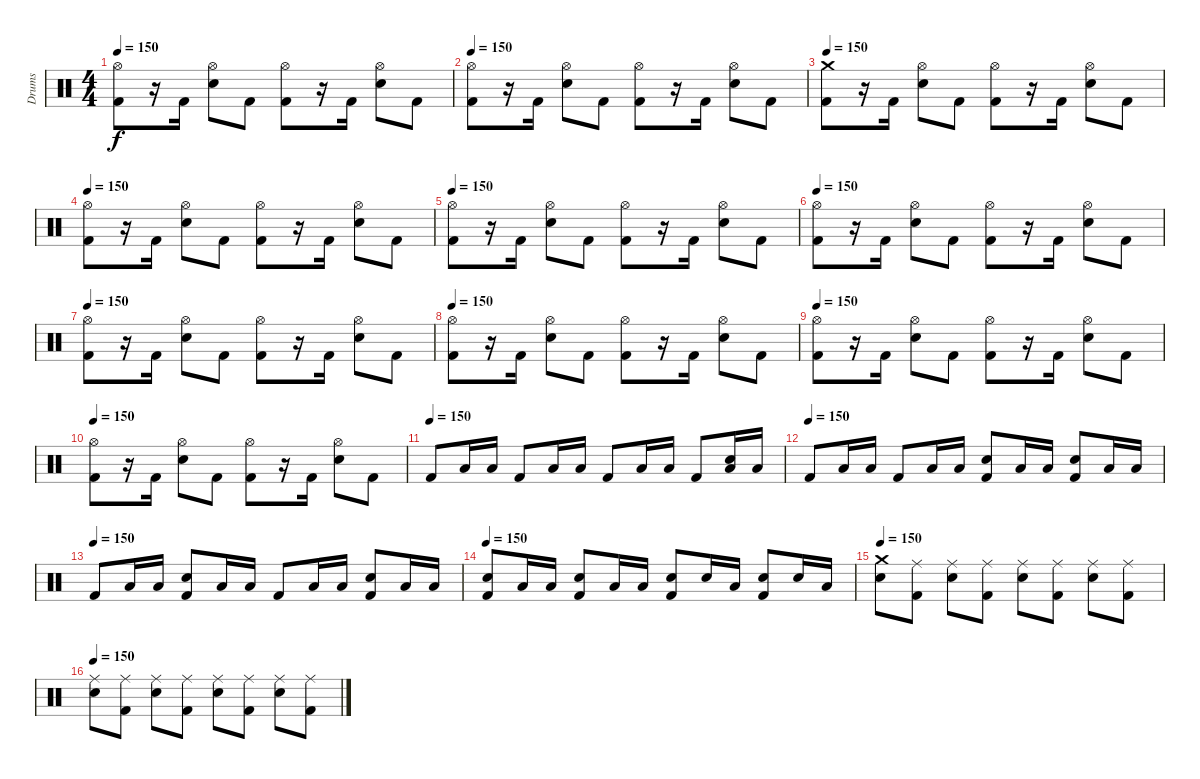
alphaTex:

\track ("Drums" "Drums") {instrument percussion}
\staff {score}
\articulation defaults
\ts (4 4)
\tempo 150
\clef neutral
\ks c
("Kick (hit) 2" "Hi-Hat (open)").8{dy f} r.16 "Kick (hit) 2".16 ("Electric Snare (hit)" "Hi-Hat (open)").8 "Kick (hit) 2".8 ("Kick (hit) 2" "Hi-Hat (open)").8 r.16 "Kick (hit) 2".16 ("Electric Snare (hit)" "Hi-Hat (open)").8 "Kick (hit) 2".8 |
\tempo 150
("Kick (hit) 2" "Hi-Hat (open)").8 r.16 "Kick (hit) 2".16 ("Electric Snare (hit)" "Hi-Hat (open)").8 "Kick (hit) 2".8 ("Kick (hit) 2" "Hi-Hat (open)").8 r.16 "Kick (hit) 2".16 ("Electric Snare (hit)" "Hi-Hat (open)").8 "Kick (hit) 2".8 |
\tempo 150
("Kick (hit) 2" "Crash medium (hit)").8 r.16 "Kick (hit) 2".16 ("Electric Snare (hit)" "Hi-Hat (open)").8 "Kick (hit) 2".8 ("Kick (hit) 2" "Hi-Hat (open)").8 r.16 "Kick (hit) 2".16 ("Electric Snare (hit)" "Hi-Hat (open)").8 "Kick (hit) 2".8 |
\tempo 150
("Kick (hit) 2" "Hi-Hat (open)").8 r.16 "Kick (hit) 2".16 ("Electric Snare (hit)" "Hi-Hat (open)").8 "Kick (hit) 2".8 ("Kick (hit) 2" "Hi-Hat (open)").8 r.16 "Kick (hit) 2".16 ("Electric Snare (hit)" "Hi-Hat (open)").8 "Kick (hit) 2".8 |
\tempo 150
("Kick (hit) 2" "Hi-Hat (open)").8 r.16 "Kick (hit) 2".16 ("Electric Snare (hit)" "Hi-Hat (open)").8 "Kick (hit) 2".8 ("Kick (hit) 2" "Hi-Hat (open)").8 r.16 "Kick (hit) 2".16 ("Electric Snare (hit)" "Hi-Hat (open)").8 "Kick (hit) 2".8 |
\tempo 150
("Kick (hit) 2" "Hi-Hat (open)").8 r.16 "Kick (hit) 2".16 ("Electric Snare (hit)" "Hi-Hat (open)").8 "Kick (hit) 2".8 ("Kick (hit) 2" "Hi-Hat (open)").8 r.16 "Kick (hit) 2".16 ("Electric Snare (hit)" "Hi-Hat (open)").8 "Kick (hit) 2".8 |
\tempo 150
("Kick (hit) 2" "Hi-Hat (open)").8 r.16 "Kick (hit) 2".16 ("Electric Snare (hit)" "Hi-Hat (open)").8 "Kick (hit) 2".8 ("Kick (hit) 2" "Hi-Hat (open)").8 r.16 "Kick (hit) 2".16 ("Electric Snare (hit)" "Hi-Hat (open)").8 "Kick (hit) 2".8 |
\tempo 150
("Kick (hit) 2" "Hi-Hat (open)").8 r.16 "Kick (hit) 2".16 ("Electric Snare (hit)" "Hi-Hat (open)").8 "Kick (hit) 2".8 ("Kick (hit) 2" "Hi-Hat (open)").8 r.16 "Kick (hit) 2".16 ("Electric Snare (hit)" "Hi-Hat (open)").8 "Kick (hit) 2".8 |
\tempo 150
("Kick (hit) 2" "Hi-Hat (open)").8 r.16 "Kick (hit) 2".16 ("Electric Snare (hit)" "Hi-Hat (open)").8 "Kick (hit) 2".8 ("Kick (hit) 2" "Hi-Hat (open)").8 r.16 "Kick (hit) 2".16 ("Electric Snare (hit)" "Hi-Hat (open)").8 "Kick (hit) 2".8 |
\tempo 150
("Kick (hit) 2" "Hi-Hat (open)").8 r.16 "Kick (hit) 2".16 ("Electric Snare (hit)" "Hi-Hat (open)").8 "Kick (hit) 2".8 ("Kick (hit) 2" "Hi-Hat (open)").8 r.16 "Kick (hit) 2".16 ("Electric Snare (hit)" "Hi-Hat (open)").8 "Kick (hit) 2".8 |
\tempo (150)
"Kick (hit) 2".8 "Low Tom (hit)".16 "Low Tom (hit)".16 "Kick (hit) 2".8 "Low Tom (hit)".16 "Low Tom (hit)".16 "Kick (hit) 2".8 "Low Tom (hit)".16 "Low Tom (hit)".16 "Kick (hit) 2".8 ("Electric Snare (hit)" "Low Tom (hit)").16 "Low Tom (hit)".16 |
\tempo (150)
"Kick (hit) 2".8 "Low Tom (hit)".16 "Low Tom (hit)".16 "Kick (hit) 2".8 "Low Tom (hit)".16 "Low Tom (hit)".16 ("Kick (hit) 2" "Electric Snare (hit)").8 "Low Tom (hit)".16 "Low Tom (hit)".16 ("Kick (hit) 2" "Electric Snare (hit)").8 "Low Tom (hit)".16 "Low Tom (hit)".16 |
\tempo (150)
"Kick (hit) 2".8 "Low Tom (hit)".16 "Low Tom (hit)".16 ("Kick (hit) 2" "Electric Snare (hit)").8 "Low Tom (hit)".16 "Low Tom (hit)".16 "Kick (hit) 2".8 "Low Tom (hit)".16 "Low Tom (hit)".16 ("Kick (hit) 2" "Electric Snare (hit)").8 "Low Tom (hit)".16 "Low Tom (hit)".16 |
\tempo 150
("Kick (hit) 2" "Electric Snare (hit)").8 "Low Tom (hit)".16 "Low Tom (hit)".16 ("Kick (hit) 2" "Electric Snare (hit)").8 "Low Tom (hit)".16 "Low Tom (hit)".16 ("Kick (hit) 2" "Electric Snare (hit)").8 "Electric Snare (hit)".16 "Low Tom (hit)".16 ("Kick (hit) 2" "Electric Snare (hit)").8 "Electric Snare (hit)".16 "Low Tom (hit)".16 |
\tempo 150
("Electric Snare (hit)" "Crash medium (hit)").8 ("Kick (hit) 2" "Ride (middle)").8 ("Electric Snare (hit)" "Ride (middle)").8 ("Kick (hit) 2" "Ride (middle)").8 ("Electric Snare (hit)" "Ride (middle)").8 ("Kick (hit) 2" "Ride (middle)").8 ("Electric Snare (hit)" "Ride (middle)").8 ("Kick (hit) 2" "Ride (middle)").8 |
\tempo 150
("Electric Snare (hit)" "Ride (middle)").8 ("Kick (hit) 2" "Ride (middle)").8 ("Electric Snare (hit)" "Ride (middle)").8 ("Kick (hit) 2" "Ride (middle)").8 ("Electric Snare (hit)" "Ride (middle)").8 ("Kick (hit) 2" "Ride (middle)").8 ("Electric Snare (hit)" "Ride (middle)").8 ("Kick (hit) 2" "Ride (middle)").8
